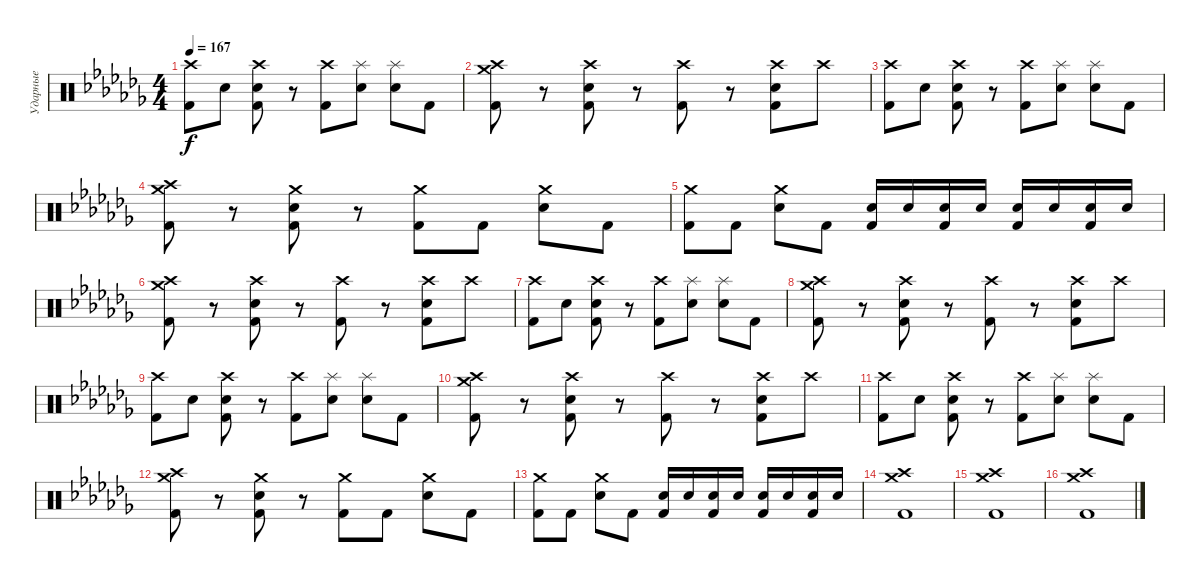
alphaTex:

\track ("Ударные" "Ударные") {instrument percussion}
\staff {score}
\articulation defaults
\ts (4 4)
\tempo 167
\clef neutral
\ks abminor
("Crash high (hit)" "Kick (hit) 2").8{dy f} "Electric Snare (hit)".8 ("Crash high (hit)" "Electric Snare (hit)" "Kick (hit) 2").8 r.8 ("Crash high (hit)" "Kick (hit) 2").8 ("Splash (hit)" "Electric Snare (hit)").8 ("Splash (hit)" "Electric Snare (hit)").8 "Kick (hit) 2".8 |
("Crash high (hit)" "Crash medium (hit)" "Kick (hit) 2").8 r.8 ("Crash high (hit)" "Electric Snare (hit)" "Kick (hit) 2").8 r.8 ("Crash high (hit)" "Kick (hit) 2").8 r.8 ("Crash high (hit)" "Electric Snare (hit)" "Kick (hit) 2").8 "Crash high (hit)".8 |
("Crash high (hit)" "Kick (hit) 2").8 "Electric Snare (hit)".8 ("Crash high (hit)" "Electric Snare (hit)" "Kick (hit) 2").8 r.8 ("Crash high (hit)" "Kick (hit) 2").8 ("Splash (hit)" "Electric Snare (hit)").8 ("Splash (hit)" "Electric Snare (hit)").8 "Kick (hit) 2".8 |
("Crash high (hit)" "Crash medium (hit)" "Kick (hit) 2").8 r.8 ("Crash medium (hit)" "Electric Snare (hit)" "Kick (hit) 2").8 r.8 ("Crash medium (hit)" "Kick (hit) 2").8 "Kick (hit) 2".8 ("Crash medium (hit)" "Electric Snare (hit)").8 "Kick (hit) 2".8 |
("Crash medium (hit)" "Kick (hit) 2").8 "Kick (hit) 2".8 ("Crash medium (hit)" "Electric Snare (hit)").8 "Kick (hit) 2".8 ("Electric Snare (hit)" "Kick (hit) 2").16 "Electric Snare (hit)".16 ("Electric Snare (hit)" "Kick (hit) 2").16 "Electric Snare (hit)".16 ("Electric Snare (hit)" "Kick (hit) 2").16 "Electric Snare (hit)".16 ("Electric Snare (hit)" "Kick (hit) 2").16 "Electric Snare (hit)".16 |
("Crash high (hit)" "Crash medium (hit)" "Kick (hit) 2").8 r.8 ("Crash high (hit)" "Electric Snare (hit)" "Kick (hit) 2").8 r.8 ("Crash high (hit)" "Kick (hit) 2").8 r.8 ("Crash high (hit)" "Electric Snare (hit)" "Kick (hit) 2").8 "Crash high (hit)".8 |
("Crash high (hit)" "Kick (hit) 2").8 "Electric Snare (hit)".8 ("Crash high (hit)" "Electric Snare (hit)" "Kick (hit) 2").8 r.8 ("Crash high (hit)" "Kick (hit) 2").8 ("Splash (hit)" "Electric Snare (hit)").8 ("Splash (hit)" "Electric Snare (hit)").8 "Kick (hit) 2".8 |
("Crash high (hit)" "Crash medium (hit)" "Kick (hit) 2").8 r.8 ("Crash high (hit)" "Electric Snare (hit)" "Kick (hit) 2").8 r.8 ("Crash high (hit)" "Kick (hit) 2").8 r.8 ("Crash high (hit)" "Electric Snare (hit)" "Kick (hit) 2").8 "Crash high (hit)".8 |
("Crash high (hit)" "Kick (hit) 2").8 "Electric Snare (hit)".8 ("Crash high (hit)" "Electric Snare (hit)" "Kick (hit) 2").8 r.8 ("Crash high (hit)" "Kick (hit) 2").8 ("Splash (hit)" "Electric Snare (hit)").8 ("Splash (hit)" "Electric Snare (hit)").8 "Kick (hit) 2".8 |
("Crash high (hit)" "Crash medium (hit)" "Kick (hit) 2").8 r.8 ("Crash high (hit)" "Electric Snare (hit)" "Kick (hit) 2").8 r.8 ("Crash high (hit)" "Kick (hit) 2").8 r.8 ("Crash high (hit)" "Electric Snare (hit)" "Kick (hit) 2").8 "Crash high (hit)".8 |
("Crash high (hit)" "Kick (hit) 2").8 "Electric Snare (hit)".8 ("Crash high (hit)" "Electric Snare (hit)" "Kick (hit) 2").8 r.8 ("Crash high (hit)" "Kick (hit) 2").8 ("Splash (hit)" "Electric Snare (hit)").8 ("Splash (hit)" "Electric Snare (hit)").8 "Kick (hit) 2".8 |
("Crash high (hit)" "Crash medium (hit)" "Kick (hit) 2").8 r.8 ("Crash medium (hit)" "Electric Snare (hit)" "Kick (hit) 2").8 r.8 ("Crash medium (hit)" "Kick (hit) 2").8 "Kick (hit) 2".8 ("Crash medium (hit)" "Electric Snare (hit)").8 "Kick (hit) 2".8 |
("Crash medium (hit)" "Kick (hit) 2").8 "Kick (hit) 2".8 ("Crash medium (hit)" "Electric Snare (hit)").8 "Kick (hit) 2".8 ("Electric Snare (hit)" "Kick (hit) 2").16 "Electric Snare (hit)".16 ("Electric Snare (hit)" "Kick (hit) 2").16 "Electric Snare (hit)".16 ("Electric Snare (hit)" "Kick (hit) 2").16 "Electric Snare (hit)".16 ("Electric Snare (hit)" "Kick (hit) 2").16 "Electric Snare (hit)".16 |
("Crash medium (hit)" "Crash high (hit)" "Kick (hit) 2").1 |
("Crash medium (hit)" "Crash high (hit)" "Kick (hit) 2").1 |
("Crash medium (hit)" "Crash high (hit)" "Kick (hit) 2").1
